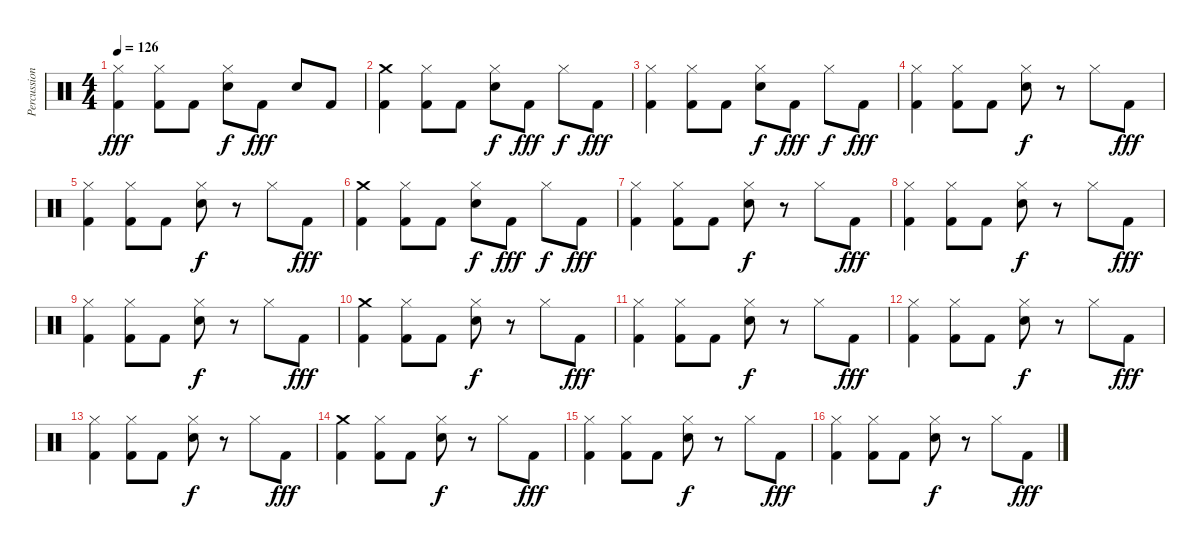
\track ("Percussion" "Percussion") {instrument percussion}
\staff {score}
\articulation defaults
\ts (4 4)
\tempo 126
\clef neutral
\ks c
("Hi-Hat (closed)" "Kick (hit) 2").4{dy fff} ("Hi-Hat (closed)" "Kick (hit) 2").8 "Kick (hit) 2".8 ("Hi-Hat (closed)" "Electric Snare (hit)").8{dy f} "Kick (hit) 2".8{dy fff} "Electric Snare (hit)".8 "Kick (hit) 2".8 |
("Crash medium (hit)" "Kick (hit) 2").4 ("Hi-Hat (closed)" "Kick (hit) 2").8 "Kick (hit) 2".8 ("Hi-Hat (closed)" "Electric Snare (hit)").8{dy f} "Kick (hit) 2".8{dy fff} "Hi-Hat (closed)".8{dy f} "Kick (hit) 2".8{dy fff} |
("Hi-Hat (closed)" "Kick (hit) 2").4 ("Hi-Hat (closed)" "Kick (hit) 2").8 "Kick (hit) 2".8 ("Hi-Hat (closed)" "Electric Snare (hit)").8{dy f} "Kick (hit) 2".8{dy fff} "Hi-Hat (closed)".8{dy f} "Kick (hit) 2".8{dy fff} |
("Hi-Hat (closed)" "Kick (hit) 2").4 ("Hi-Hat (closed)" "Kick (hit) 2").8 "Kick (hit) 2".8 ("Hi-Hat (closed)" "Electric Snare (hit)").8{dy f} r.8 "Hi-Hat (closed)".8 "Kick (hit) 2".8{dy fff} |
("Hi-Hat (closed)" "Kick (hit) 2").4 ("Hi-Hat (closed)" "Kick (hit) 2").8 "Kick (hit) 2".8 ("Hi-Hat (closed)" "Electric Snare (hit)").8{dy f} r.8 "Hi-Hat (closed)".8 "Kick (hit) 2".8{dy fff} |
("Crash medium (hit)" "Kick (hit) 2").4 ("Hi-Hat (closed)" "Kick (hit) 2").8 "Kick (hit) 2".8 ("Hi-Hat (closed)" "Electric Snare (hit)").8{dy f} "Kick (hit) 2".8{dy fff} "Hi-Hat (closed)".8{dy f} "Kick (hit) 2".8{dy fff} |
("Hi-Hat (closed)" "Kick (hit) 2").4 ("Hi-Hat (closed)" "Kick (hit) 2").8 "Kick (hit) 2".8 ("Hi-Hat (closed)" "Electric Snare (hit)").8{dy f} r.8 "Hi-Hat (closed)".8 "Kick (hit) 2".8{dy fff} |
("Hi-Hat (closed)" "Kick (hit) 2").4 ("Hi-Hat (closed)" "Kick (hit) 2").8 "Kick (hit) 2".8 ("Hi-Hat (closed)" "Electric Snare (hit)").8{dy f} r.8 "Hi-Hat (closed)".8 "Kick (hit) 2".8{dy fff} |
("Hi-Hat (closed)" "Kick (hit) 2").4 ("Hi-Hat (closed)" "Kick (hit) 2").8 "Kick (hit) 2".8 ("Hi-Hat (closed)" "Electric Snare (hit)").8{dy f} r.8 "Hi-Hat (closed)".8 "Kick (hit) 2".8{dy fff} |
("Crash medium (hit)" "Kick (hit) 2").4 ("Hi-Hat (closed)" "Kick (hit) 2").8 "Kick (hit) 2".8 ("Hi-Hat (closed)" "Electric Snare (hit)").8{dy f} r.8 "Hi-Hat (closed)".8 "Kick (hit) 2".8{dy fff} |
("Hi-Hat (closed)" "Kick (hit) 2").4 ("Hi-Hat (closed)" "Kick (hit) 2").8 "Kick (hit) 2".8 ("Hi-Hat (closed)" "Electric Snare (hit)").8{dy f} r.8 "Hi-Hat (closed)".8 "Kick (hit) 2".8{dy fff} |
("Hi-Hat (closed)" "Kick (hit) 2").4 ("Hi-Hat (closed)" "Kick (hit) 2").8 "Kick (hit) 2".8 ("Hi-Hat (closed)" "Electric Snare (hit)").8{dy f} r.8 "Hi-Hat (closed)".8 "Kick (hit) 2".8{dy fff} |
("Hi-Hat (closed)" "Kick (hit) 2").4 ("Hi-Hat (closed)" "Kick (hit) 2").8 "Kick (hit) 2".8 ("Hi-Hat (closed)" "Electric Snare (hit)").8{dy f} r.8 "Hi-Hat (closed)".8 "Kick (hit) 2".8{dy fff} |
("Crash medium (hit)" "Kick (hit) 2").4 ("Hi-Hat (closed)" "Kick (hit) 2").8 "Kick (hit) 2".8 ("Hi-Hat (closed)" "Electric Snare (hit)").8{dy f} r.8 "Hi-Hat (closed)".8 "Kick (hit) 2".8{dy fff} |
("Hi-Hat (closed)" "Kick (hit) 2").4 ("Hi-Hat (closed)" "Kick (hit) 2").8 "Kick (hit) 2".8 ("Hi-Hat (closed)" "Electric Snare (hit)").8{dy f} r.8 "Hi-Hat (closed)".8 "Kick (hit) 2".8{dy fff} |
("Hi-Hat (closed)" "Kick (hit) 2").4 ("Hi-Hat (closed)" "Kick (hit) 2").8 "Kick (hit) 2".8 ("Hi-Hat (closed)" "Electric Snare (hit)").8{dy f} r.8 "Hi-Hat (closed)".8 "Kick (hit) 2".8{dy fff}
